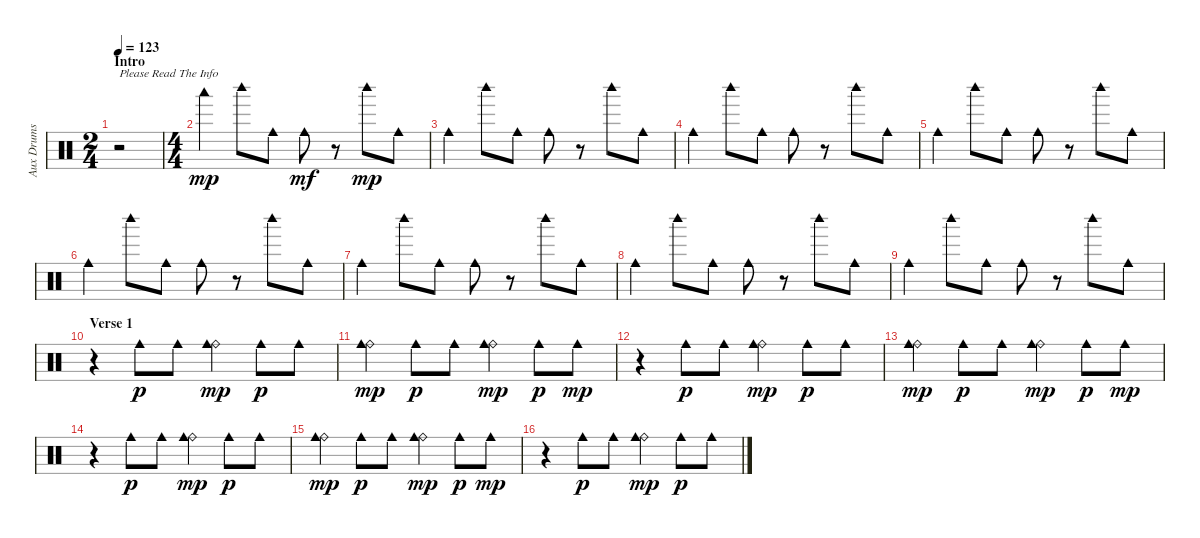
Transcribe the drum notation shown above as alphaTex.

\track ("Aux Drums" "Aux Drums") {instrument percussion}
\staff {score}
\articulation defaults
\ts (2 4)
\section ("" "Intro")
\tempo 123
\clef neutral
\ks c
r.2{txt "Please Read The Info" dy mp} |
\ts (4 4)
"Woodblock low (hit)".4 "Woodblock high (hit)".8 "Cowbell medium (hit)".8 "Cowbell medium (hit)".8{dy mf} r.8 "Woodblock high (hit)".8{dy mp} "Cowbell medium (hit)".8 |
"Cowbell medium (hit)".4 "Woodblock high (hit)".8 "Cowbell medium (hit)".8 "Cowbell medium (hit)".8 r.8 "Woodblock high (hit)".8 "Cowbell medium (hit)".8 |
"Cowbell medium (hit)".4 "Woodblock high (hit)".8 "Cowbell medium (hit)".8 "Cowbell medium (hit)".8 r.8 "Woodblock high (hit)".8 "Cowbell medium (hit)".8 |
"Cowbell medium (hit)".4 "Woodblock high (hit)".8 "Cowbell medium (hit)".8 "Cowbell medium (hit)".8 r.8 "Woodblock high (hit)".8 "Cowbell medium (hit)".8 |
"Cowbell medium (hit)".4 "Woodblock high (hit)".8 "Cowbell medium (hit)".8 "Cowbell medium (hit)".8 r.8 "Woodblock high (hit)".8 "Cowbell medium (hit)".8 |
"Cowbell medium (hit)".4 "Woodblock high (hit)".8 "Cowbell medium (hit)".8 "Cowbell medium (hit)".8 r.8 "Woodblock high (hit)".8 "Cowbell medium (hit)".8 |
"Cowbell medium (hit)".4 "Woodblock high (hit)".8 "Cowbell medium (hit)".8 "Cowbell medium (hit)".8 r.8 "Woodblock high (hit)".8 "Cowbell medium (hit)".8 |
"Cowbell medium (hit)".4 "Woodblock high (hit)".8 "Cowbell medium (hit)".8 "Cowbell medium (hit)".8 r.8 "Woodblock high (hit)".8 "Cowbell medium (hit)".8 |
\section ("" "Verse 1")
r.4 "Cowbell medium (hit)".8{dy p} "Cowbell medium (hit)".8 ("Ride (bell)" "Cowbell medium (hit)").4{dy mp} "Cowbell medium (hit)".8{dy p} "Cowbell medium (hit)".8 |
("Ride (bell)" "Cowbell medium (hit)").4{dy mp} "Cowbell medium (hit)".8{dy p} "Cowbell medium (hit)".8 ("Ride (bell)" "Cowbell medium (hit)").4{dy mp} "Cowbell medium (hit)".8{dy p} "Cowbell medium (hit)".8{dy mp} |
r.4 "Cowbell medium (hit)".8{dy p} "Cowbell medium (hit)".8 ("Ride (bell)" "Cowbell medium (hit)").4{dy mp} "Cowbell medium (hit)".8{dy p} "Cowbell medium (hit)".8 |
("Ride (bell)" "Cowbell medium (hit)").4{dy mp} "Cowbell medium (hit)".8{dy p} "Cowbell medium (hit)".8 ("Ride (bell)" "Cowbell medium (hit)").4{dy mp} "Cowbell medium (hit)".8{dy p} "Cowbell medium (hit)".8{dy mp} |
r.4 "Cowbell medium (hit)".8{dy p} "Cowbell medium (hit)".8 ("Ride (bell)" "Cowbell medium (hit)").4{dy mp} "Cowbell medium (hit)".8{dy p} "Cowbell medium (hit)".8 |
("Ride (bell)" "Cowbell medium (hit)").4{dy mp} "Cowbell medium (hit)".8{dy p} "Cowbell medium (hit)".8 ("Ride (bell)" "Cowbell medium (hit)").4{dy mp} "Cowbell medium (hit)".8{dy p} "Cowbell medium (hit)".8{dy mp} |
r.4 "Cowbell medium (hit)".8{dy p} "Cowbell medium (hit)".8 ("Ride (bell)" "Cowbell medium (hit)").4{dy mp} "Cowbell medium (hit)".8{dy p} "Cowbell medium (hit)".8
